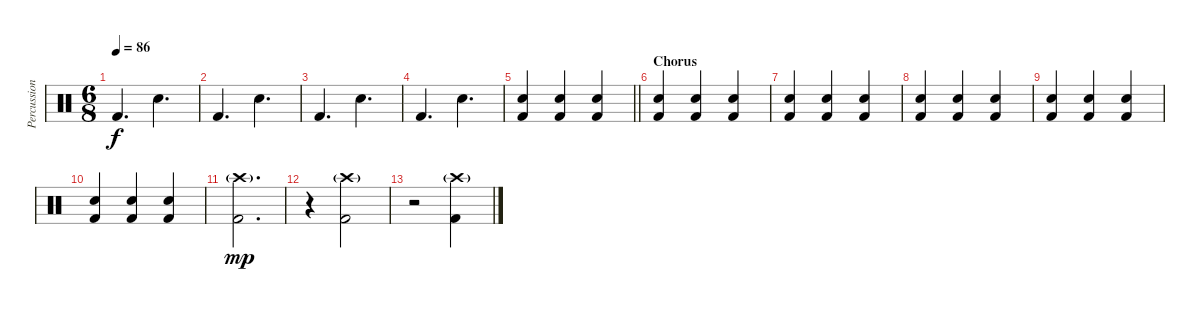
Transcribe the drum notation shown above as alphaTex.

\track ("Percussion" "Percussion") {instrument percussion}
\staff {score}
\articulation defaults
\ts (6 8)
\tempo 86
\clef neutral
\ks c "Kick (hit) 2".4{d dy f} "Snare (hit) 2".4{d}
|
"Kick (hit) 2".4{d} "Snare (hit) 2".4{d} |
"Kick (hit) 2".4{d} "Snare (hit) 2".4{d} |
"Kick (hit) 2".4{d} "Snare (hit) 2".4{d} |
\barLineRight lightlight
("Snare (hit) 2" "Kick (hit) 2").4 ("Snare (hit) 2" "Kick (hit) 2").4 ("Snare (hit) 2" "Kick (hit) 2").4 |
\section ("" "Chorus")
("Snare (hit) 2" "Kick (hit) 2").4 ("Snare (hit) 2" "Kick (hit) 2").4 ("Snare (hit) 2" "Kick (hit) 2").4 |
("Snare (hit) 2" "Kick (hit) 2").4 ("Snare (hit) 2" "Kick (hit) 2").4 ("Snare (hit) 2" "Kick (hit) 2").4 |
("Snare (hit) 2" "Kick (hit) 2").4 ("Snare (hit) 2" "Kick (hit) 2").4 ("Snare (hit) 2" "Kick (hit) 2").4 |
("Snare (hit) 2" "Kick (hit) 2").4 ("Snare (hit) 2" "Kick (hit) 2").4 ("Snare (hit) 2" "Kick (hit) 2").4 |
("Snare (hit) 2" "Kick (hit) 2").4 ("Snare (hit) 2" "Kick (hit) 2").4 ("Snare (hit) 2" "Kick (hit) 2").4 |
("Crash high (hit)"{g} "Kick (hit) 2").2{d dy mp} |
r.4 ("Crash high (hit)"{g} "Kick (hit) 2").2 |
r.2 ("Crash high (hit)"{g} "Kick (hit) 2").4
